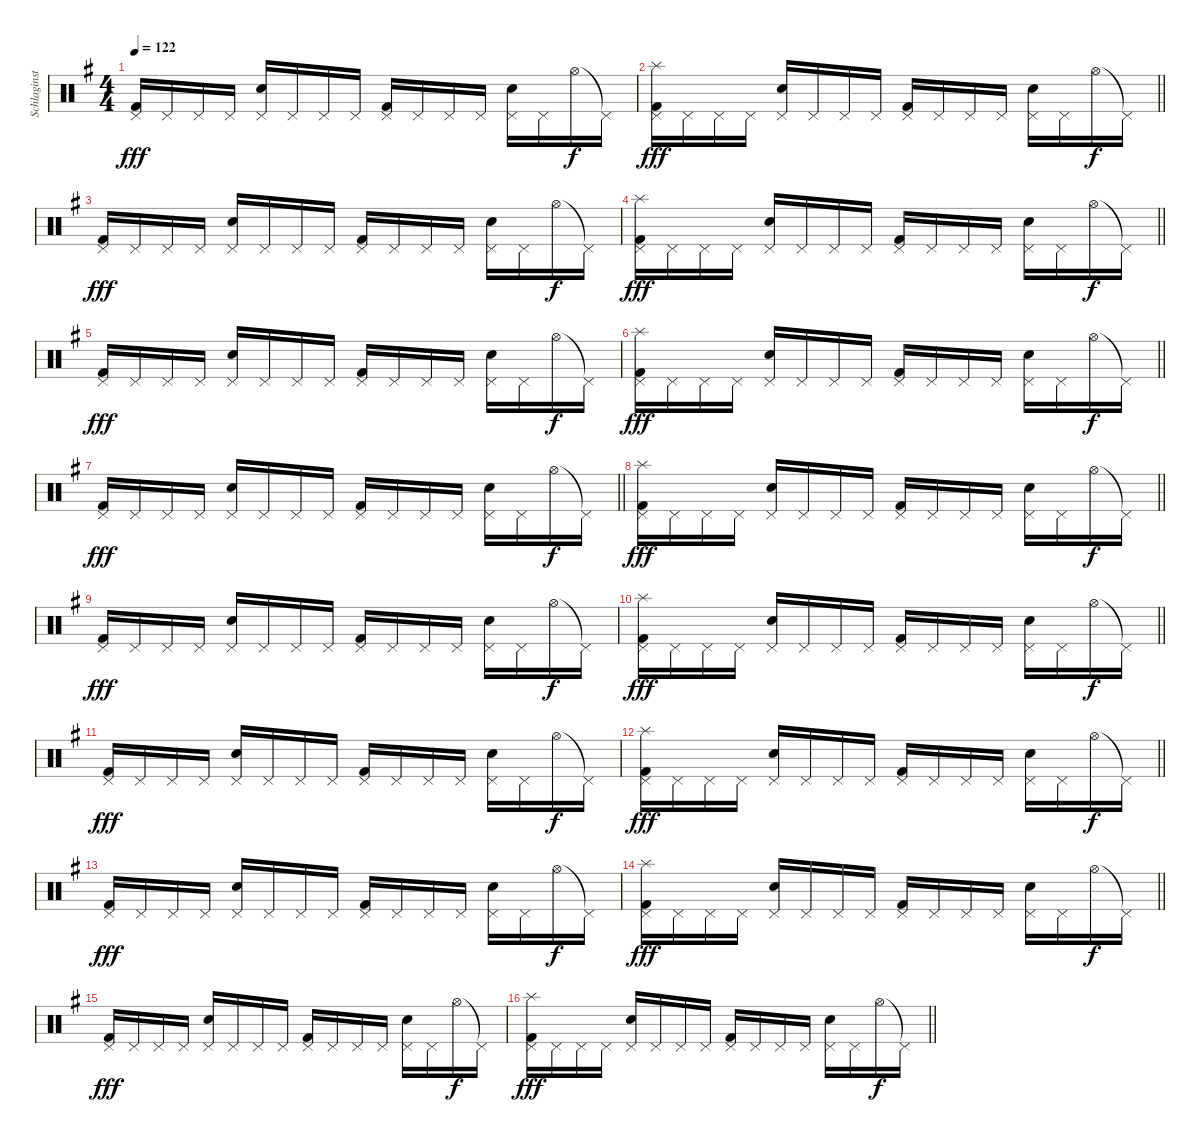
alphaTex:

\track ("Schlaginstrumente - Auswahl" "Schlaginst") {instrument percussion}
\staff {score}
\articulation defaults
\ts (4 4)
\tempo 122
\clef neutral
\ks g
("Pedal Hi-Hat (hit)" "Kick (hit) 2").16{dy fff} "Pedal Hi-Hat (hit)".16 "Pedal Hi-Hat (hit)".16 "Pedal Hi-Hat (hit)".16 ("Pedal Hi-Hat (hit)" "Electric Snare (hit)").16 "Pedal Hi-Hat (hit)".16 "Pedal Hi-Hat (hit)".16 "Pedal Hi-Hat (hit)".16 ("Pedal Hi-Hat (hit)" "Kick (hit) 2").16 "Pedal Hi-Hat (hit)".16 "Pedal Hi-Hat (hit)".16 "Pedal Hi-Hat (hit)".16 ("Pedal Hi-Hat (hit)" "Electric Snare (hit)").16 "Pedal Hi-Hat (hit)".16 "Hi-Hat (open)".16{dy f} "Pedal Hi-Hat (hit)"{t}.16 |
\barLineRight lightlight
("Splash (hit)" "Pedal Hi-Hat (hit)" "Kick (hit) 2").16{dy fff} "Pedal Hi-Hat (hit)".16 "Pedal Hi-Hat (hit)".16 "Pedal Hi-Hat (hit)".16 ("Pedal Hi-Hat (hit)" "Electric Snare (hit)").16 "Pedal Hi-Hat (hit)".16 "Pedal Hi-Hat (hit)".16 "Pedal Hi-Hat (hit)".16 ("Pedal Hi-Hat (hit)" "Kick (hit) 2").16 "Pedal Hi-Hat (hit)".16 "Pedal Hi-Hat (hit)".16 "Pedal Hi-Hat (hit)".16 ("Pedal Hi-Hat (hit)" "Electric Snare (hit)").16 "Pedal Hi-Hat (hit)".16 "Hi-Hat (open)".16{dy f} "Pedal Hi-Hat (hit)"{t}.16 |
("Pedal Hi-Hat (hit)" "Kick (hit) 2").16{dy fff} "Pedal Hi-Hat (hit)".16 "Pedal Hi-Hat (hit)".16 "Pedal Hi-Hat (hit)".16 ("Pedal Hi-Hat (hit)" "Electric Snare (hit)").16 "Pedal Hi-Hat (hit)".16 "Pedal Hi-Hat (hit)".16 "Pedal Hi-Hat (hit)".16 ("Pedal Hi-Hat (hit)" "Kick (hit) 2").16 "Pedal Hi-Hat (hit)".16 "Pedal Hi-Hat (hit)".16 "Pedal Hi-Hat (hit)".16 ("Pedal Hi-Hat (hit)" "Electric Snare (hit)").16 "Pedal Hi-Hat (hit)".16 "Hi-Hat (open)".16{dy f} "Pedal Hi-Hat (hit)"{t}.16 |
\barLineRight lightlight
("Splash (hit)" "Pedal Hi-Hat (hit)" "Kick (hit) 2").16{dy fff} "Pedal Hi-Hat (hit)".16 "Pedal Hi-Hat (hit)".16 "Pedal Hi-Hat (hit)".16 ("Pedal Hi-Hat (hit)" "Electric Snare (hit)").16 "Pedal Hi-Hat (hit)".16 "Pedal Hi-Hat (hit)".16 "Pedal Hi-Hat (hit)".16 ("Pedal Hi-Hat (hit)" "Kick (hit) 2").16 "Pedal Hi-Hat (hit)".16 "Pedal Hi-Hat (hit)".16 "Pedal Hi-Hat (hit)".16 ("Pedal Hi-Hat (hit)" "Electric Snare (hit)").16 "Pedal Hi-Hat (hit)".16 "Hi-Hat (open)".16{dy f} "Pedal Hi-Hat (hit)"{t}.16 |
("Pedal Hi-Hat (hit)" "Kick (hit) 2").16{dy fff} "Pedal Hi-Hat (hit)".16 "Pedal Hi-Hat (hit)".16 "Pedal Hi-Hat (hit)".16 ("Pedal Hi-Hat (hit)" "Electric Snare (hit)").16 "Pedal Hi-Hat (hit)".16 "Pedal Hi-Hat (hit)".16 "Pedal Hi-Hat (hit)".16 ("Pedal Hi-Hat (hit)" "Kick (hit) 2").16 "Pedal Hi-Hat (hit)".16 "Pedal Hi-Hat (hit)".16 "Pedal Hi-Hat (hit)".16 ("Pedal Hi-Hat (hit)" "Electric Snare (hit)").16 "Pedal Hi-Hat (hit)".16 "Hi-Hat (open)".16{dy f} "Pedal Hi-Hat (hit)"{t}.16 |
\barLineRight lightlight
("Splash (hit)" "Pedal Hi-Hat (hit)" "Kick (hit) 2").16{dy fff} "Pedal Hi-Hat (hit)".16 "Pedal Hi-Hat (hit)".16 "Pedal Hi-Hat (hit)".16 ("Pedal Hi-Hat (hit)" "Electric Snare (hit)").16 "Pedal Hi-Hat (hit)".16 "Pedal Hi-Hat (hit)".16 "Pedal Hi-Hat (hit)".16 ("Pedal Hi-Hat (hit)" "Kick (hit) 2").16 "Pedal Hi-Hat (hit)".16 "Pedal Hi-Hat (hit)".16 "Pedal Hi-Hat (hit)".16 ("Pedal Hi-Hat (hit)" "Electric Snare (hit)").16 "Pedal Hi-Hat (hit)".16 "Hi-Hat (open)".16{dy f} "Pedal Hi-Hat (hit)"{t}.16 |
\barLineRight lightlight
("Pedal Hi-Hat (hit)" "Kick (hit) 2").16{dy fff} "Pedal Hi-Hat (hit)".16 "Pedal Hi-Hat (hit)".16 "Pedal Hi-Hat (hit)".16 ("Pedal Hi-Hat (hit)" "Electric Snare (hit)").16 "Pedal Hi-Hat (hit)".16 "Pedal Hi-Hat (hit)".16 "Pedal Hi-Hat (hit)".16 ("Pedal Hi-Hat (hit)" "Kick (hit) 2").16 "Pedal Hi-Hat (hit)".16 "Pedal Hi-Hat (hit)".16 "Pedal Hi-Hat (hit)".16 ("Pedal Hi-Hat (hit)" "Electric Snare (hit)").16 "Pedal Hi-Hat (hit)".16 "Hi-Hat (open)".16{dy f} "Pedal Hi-Hat (hit)"{t}.16 |
\barLineRight lightlight
("Splash (hit)" "Pedal Hi-Hat (hit)" "Kick (hit) 2").16{dy fff} "Pedal Hi-Hat (hit)".16 "Pedal Hi-Hat (hit)".16 "Pedal Hi-Hat (hit)".16 ("Pedal Hi-Hat (hit)" "Electric Snare (hit)").16 "Pedal Hi-Hat (hit)".16 "Pedal Hi-Hat (hit)".16 "Pedal Hi-Hat (hit)".16 ("Pedal Hi-Hat (hit)" "Kick (hit) 2").16 "Pedal Hi-Hat (hit)".16 "Pedal Hi-Hat (hit)".16 "Pedal Hi-Hat (hit)".16 ("Pedal Hi-Hat (hit)" "Electric Snare (hit)").16 "Pedal Hi-Hat (hit)".16 "Hi-Hat (open)".16{dy f} "Pedal Hi-Hat (hit)"{t}.16 |
("Pedal Hi-Hat (hit)" "Kick (hit) 2").16{dy fff} "Pedal Hi-Hat (hit)".16 "Pedal Hi-Hat (hit)".16 "Pedal Hi-Hat (hit)".16 ("Pedal Hi-Hat (hit)" "Electric Snare (hit)").16 "Pedal Hi-Hat (hit)".16 "Pedal Hi-Hat (hit)".16 "Pedal Hi-Hat (hit)".16 ("Pedal Hi-Hat (hit)" "Kick (hit) 2").16 "Pedal Hi-Hat (hit)".16 "Pedal Hi-Hat (hit)".16 "Pedal Hi-Hat (hit)".16 ("Pedal Hi-Hat (hit)" "Electric Snare (hit)").16 "Pedal Hi-Hat (hit)".16 "Hi-Hat (open)".16{dy f} "Pedal Hi-Hat (hit)"{t}.16 |
\barLineRight lightlight
("Splash (hit)" "Pedal Hi-Hat (hit)" "Kick (hit) 2").16{dy fff} "Pedal Hi-Hat (hit)".16 "Pedal Hi-Hat (hit)".16 "Pedal Hi-Hat (hit)".16 ("Pedal Hi-Hat (hit)" "Electric Snare (hit)").16 "Pedal Hi-Hat (hit)".16 "Pedal Hi-Hat (hit)".16 "Pedal Hi-Hat (hit)".16 ("Pedal Hi-Hat (hit)" "Kick (hit) 2").16 "Pedal Hi-Hat (hit)".16 "Pedal Hi-Hat (hit)".16 "Pedal Hi-Hat (hit)".16 ("Pedal Hi-Hat (hit)" "Electric Snare (hit)").16 "Pedal Hi-Hat (hit)".16 "Hi-Hat (open)".16{dy f} "Pedal Hi-Hat (hit)"{t}.16 |
("Pedal Hi-Hat (hit)" "Kick (hit) 2").16{dy fff} "Pedal Hi-Hat (hit)".16 "Pedal Hi-Hat (hit)".16 "Pedal Hi-Hat (hit)".16 ("Pedal Hi-Hat (hit)" "Electric Snare (hit)").16 "Pedal Hi-Hat (hit)".16 "Pedal Hi-Hat (hit)".16 "Pedal Hi-Hat (hit)".16 ("Pedal Hi-Hat (hit)" "Kick (hit) 2").16 "Pedal Hi-Hat (hit)".16 "Pedal Hi-Hat (hit)".16 "Pedal Hi-Hat (hit)".16 ("Pedal Hi-Hat (hit)" "Electric Snare (hit)").16 "Pedal Hi-Hat (hit)".16 "Hi-Hat (open)".16{dy f} "Pedal Hi-Hat (hit)"{t}.16 |
\barLineRight lightlight
("Splash (hit)" "Pedal Hi-Hat (hit)" "Kick (hit) 2").16{dy fff} "Pedal Hi-Hat (hit)".16 "Pedal Hi-Hat (hit)".16 "Pedal Hi-Hat (hit)".16 ("Pedal Hi-Hat (hit)" "Electric Snare (hit)").16 "Pedal Hi-Hat (hit)".16 "Pedal Hi-Hat (hit)".16 "Pedal Hi-Hat (hit)".16 ("Pedal Hi-Hat (hit)" "Kick (hit) 2").16 "Pedal Hi-Hat (hit)".16 "Pedal Hi-Hat (hit)".16 "Pedal Hi-Hat (hit)".16 ("Pedal Hi-Hat (hit)" "Electric Snare (hit)").16 "Pedal Hi-Hat (hit)".16 "Hi-Hat (open)".16{dy f} "Pedal Hi-Hat (hit)"{t}.16 |
("Pedal Hi-Hat (hit)" "Kick (hit) 2").16{dy fff} "Pedal Hi-Hat (hit)".16 "Pedal Hi-Hat (hit)".16 "Pedal Hi-Hat (hit)".16 ("Pedal Hi-Hat (hit)" "Electric Snare (hit)").16 "Pedal Hi-Hat (hit)".16 "Pedal Hi-Hat (hit)".16 "Pedal Hi-Hat (hit)".16 ("Pedal Hi-Hat (hit)" "Kick (hit) 2").16 "Pedal Hi-Hat (hit)".16 "Pedal Hi-Hat (hit)".16 "Pedal Hi-Hat (hit)".16 ("Pedal Hi-Hat (hit)" "Electric Snare (hit)").16 "Pedal Hi-Hat (hit)".16 "Hi-Hat (open)".16{dy f} "Pedal Hi-Hat (hit)"{t}.16 |
\barLineRight lightlight
("Splash (hit)" "Pedal Hi-Hat (hit)" "Kick (hit) 2").16{dy fff} "Pedal Hi-Hat (hit)".16 "Pedal Hi-Hat (hit)".16 "Pedal Hi-Hat (hit)".16 ("Pedal Hi-Hat (hit)" "Electric Snare (hit)").16 "Pedal Hi-Hat (hit)".16 "Pedal Hi-Hat (hit)".16 "Pedal Hi-Hat (hit)".16 ("Pedal Hi-Hat (hit)" "Kick (hit) 2").16 "Pedal Hi-Hat (hit)".16 "Pedal Hi-Hat (hit)".16 "Pedal Hi-Hat (hit)".16 ("Pedal Hi-Hat (hit)" "Electric Snare (hit)").16 "Pedal Hi-Hat (hit)".16 "Hi-Hat (open)".16{dy f} "Pedal Hi-Hat (hit)"{t}.16 |
("Pedal Hi-Hat (hit)" "Kick (hit) 2").16{dy fff} "Pedal Hi-Hat (hit)".16 "Pedal Hi-Hat (hit)".16 "Pedal Hi-Hat (hit)".16 ("Pedal Hi-Hat (hit)" "Electric Snare (hit)").16 "Pedal Hi-Hat (hit)".16 "Pedal Hi-Hat (hit)".16 "Pedal Hi-Hat (hit)".16 ("Pedal Hi-Hat (hit)" "Kick (hit) 2").16 "Pedal Hi-Hat (hit)".16 "Pedal Hi-Hat (hit)".16 "Pedal Hi-Hat (hit)".16 ("Pedal Hi-Hat (hit)" "Electric Snare (hit)").16 "Pedal Hi-Hat (hit)".16 "Hi-Hat (open)".16{dy f} "Pedal Hi-Hat (hit)"{t}.16 |
\barLineRight lightlight
("Splash (hit)" "Pedal Hi-Hat (hit)" "Kick (hit) 2").16{dy fff} "Pedal Hi-Hat (hit)".16 "Pedal Hi-Hat (hit)".16 "Pedal Hi-Hat (hit)".16 ("Pedal Hi-Hat (hit)" "Electric Snare (hit)").16 "Pedal Hi-Hat (hit)".16 "Pedal Hi-Hat (hit)".16 "Pedal Hi-Hat (hit)".16 ("Pedal Hi-Hat (hit)" "Kick (hit) 2").16 "Pedal Hi-Hat (hit)".16 "Pedal Hi-Hat (hit)".16 "Pedal Hi-Hat (hit)".16 ("Pedal Hi-Hat (hit)" "Electric Snare (hit)").16 "Pedal Hi-Hat (hit)".16 "Hi-Hat (open)".16{dy f} "Pedal Hi-Hat (hit)"{t}.16
